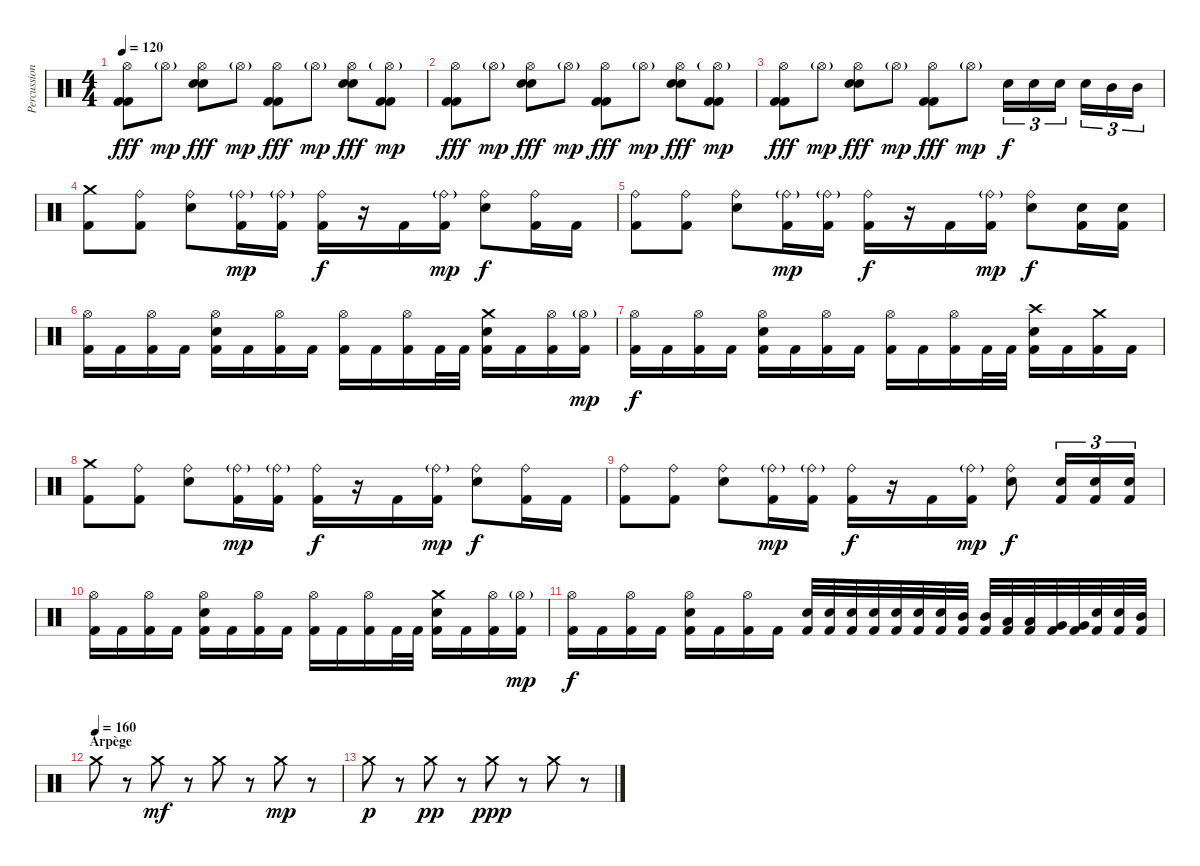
\track ("Percussions" "Percussion") {instrument percussion}
\staff {score}
\articulation defaults
\ts (4 4)
\tempo 120
\clef neutral
\ks c
("Kick (hit) 2" "Kick (hit) 2" "Hi-Hat (open)").8{dy fff} "Hi-Hat (open)"{g}.8{dy mp} ("Electric Snare (hit)" "Electric Snare (hit)" "Hi-Hat (open)").8{dy fff} "Hi-Hat (open)"{g}.8{dy mp} ("Kick (hit) 2" "Kick (hit) 2" "Hi-Hat (open)").8{dy fff} "Hi-Hat (open)"{g}.8{dy mp} ("Electric Snare (hit)" "Electric Snare (hit)" "Hi-Hat (open)").8{dy fff} ("Kick (hit) 2" "Kick (hit) 2" "Hi-Hat (open)"{g}).8{dy mp} |
("Kick (hit) 2" "Kick (hit) 2" "Hi-Hat (open)").8{dy fff} "Hi-Hat (open)"{g}.8{dy mp} ("Electric Snare (hit)" "Electric Snare (hit)" "Hi-Hat (open)").8{dy fff} "Hi-Hat (open)"{g}.8{dy mp} ("Kick (hit) 2" "Kick (hit) 2" "Hi-Hat (open)").8{dy fff} "Hi-Hat (open)"{g}.8{dy mp} ("Electric Snare (hit)" "Electric Snare (hit)" "Hi-Hat (open)").8{dy fff} ("Kick (hit) 2" "Kick (hit) 2" "Hi-Hat (open)"{g}).8{dy mp} |
("Kick (hit) 2" "Kick (hit) 2" "Hi-Hat (open)").8{dy fff} "Hi-Hat (open)"{g}.8{dy mp} ("Electric Snare (hit)" "Electric Snare (hit)" "Hi-Hat (open)").8{dy fff} "Hi-Hat (open)"{g}.8{dy mp} ("Kick (hit) 2" "Kick (hit) 2" "Hi-Hat (open)").8{dy fff} "Hi-Hat (open)"{g}.8{dy mp} "Electric Snare (hit)".16{tu (3 2) dy f} "Electric Snare (hit)".16{tu (3 2)} "Snare (hit) 2".16{tu (3 2)} "Snare (hit) 2".16{tu (3 2)} "Mid Tom (hit)".16{tu (3 2)} "Mid Tom (hit)".16{tu (3 2)} |
("Kick (hit) 2" "Crash medium (hit)").8 ("Kick (hit) 2" "Ride (bell)").8 ("Electric Snare (hit)" "Ride (bell)").8 ("Kick (hit) 2" "Ride (bell)"{g}).16{dy mp} ("Kick (hit) 2" "Ride (bell)"{g}).16 ("Kick (hit) 2" "Ride (bell)").16{dy f} r.16 "Kick (hit) 2".16 ("Kick (hit) 2" "Ride (bell)"{g}).16{dy mp} ("Electric Snare (hit)" "Ride (bell)").8{dy f} ("Kick (hit) 2" "Ride (bell)").16 "Kick (hit) 2".16 |
("Kick (hit) 2" "Ride (bell)").8 ("Kick (hit) 2" "Ride (bell)").8 ("Electric Snare (hit)" "Ride (bell)").8 ("Kick (hit) 2" "Ride (bell)"{g}).16{dy mp} ("Kick (hit) 2" "Ride (bell)"{g}).16 ("Kick (hit) 2" "Ride (bell)").16{dy f} r.16 "Kick (hit) 2".16 ("Kick (hit) 2" "Ride (bell)"{g}).16{dy mp} ("Electric Snare (hit)" "Ride (bell)").8{dy f} ("Kick (hit) 2" "Electric Snare (hit)").16 ("Kick (hit) 2" "Electric Snare (hit)").16 |
("Kick (hit) 2" "Hi-Hat (open)").16 "Kick (hit) 2".16 ("Kick (hit) 2" "Hi-Hat (open)").16 "Kick (hit) 2".16 ("Kick (hit) 2" "Electric Snare (hit)" "Hi-Hat (open)").16 "Kick (hit) 2".16 ("Kick (hit) 2" "Hi-Hat (open)").16 "Kick (hit) 2".16 ("Kick (hit) 2" "Hi-Hat (open)").16 "Kick (hit) 2".16 ("Kick (hit) 2" "Hi-Hat (open)").16 "Kick (hit) 2".32 "Kick (hit) 2".32 ("Kick (hit) 2" "Electric Snare (hit)" "Crash medium (hit)").16 "Kick (hit) 2".16 ("Kick (hit) 2" "Hi-Hat (open)").16 ("Kick (hit) 2" "Hi-Hat (open)"{g}).16{dy mp} |
("Kick (hit) 2" "Hi-Hat (open)").16{dy f} "Kick (hit) 2".16 ("Kick (hit) 2" "Hi-Hat (open)").16 "Kick (hit) 2".16 ("Kick (hit) 2" "Electric Snare (hit)" "Hi-Hat (open)").16 "Kick (hit) 2".16 ("Kick (hit) 2" "Hi-Hat (open)").16 "Kick (hit) 2".16 ("Kick (hit) 2" "Hi-Hat (open)").16 "Kick (hit) 2".16 ("Kick (hit) 2" "Hi-Hat (open)").16 "Kick (hit) 2".32 "Kick (hit) 2".32 ("Kick (hit) 2" "Electric Snare (hit)" "Crash high (hit)").16 "Kick (hit) 2".16 ("Kick (hit) 2" "Crash medium (hit)").16 "Kick (hit) 2".16 |
("Kick (hit) 2" "Crash medium (hit)").8 ("Kick (hit) 2" "Ride (bell)").8 ("Electric Snare (hit)" "Ride (bell)").8 ("Kick (hit) 2" "Ride (bell)"{g}).16{dy mp} ("Kick (hit) 2" "Ride (bell)"{g}).16 ("Kick (hit) 2" "Ride (bell)").16{dy f} r.16 "Kick (hit) 2".16 ("Kick (hit) 2" "Ride (bell)"{g}).16{dy mp} ("Electric Snare (hit)" "Ride (bell)").8{dy f} ("Kick (hit) 2" "Ride (bell)").16 "Kick (hit) 2".16 |
("Kick (hit) 2" "Ride (bell)").8 ("Kick (hit) 2" "Ride (bell)").8 ("Electric Snare (hit)" "Ride (bell)").8 ("Kick (hit) 2" "Ride (bell)"{g}).16{dy mp} ("Kick (hit) 2" "Ride (bell)"{g}).16 ("Kick (hit) 2" "Ride (bell)").16{dy f} r.16 "Kick (hit) 2".16 ("Kick (hit) 2" "Ride (bell)"{g}).16{dy mp} ("Electric Snare (hit)" "Ride (bell)").8{dy f} ("Kick (hit) 2" "Electric Snare (hit)").16{tu (3 2)} ("Kick (hit) 2" "Electric Snare (hit)").16{tu (3 2)} ("Kick (hit) 2" "Electric Snare (hit)").16{tu (3 2)} |
("Kick (hit) 2" "Hi-Hat (open)").16 "Kick (hit) 2".16 ("Kick (hit) 2" "Hi-Hat (open)").16 "Kick (hit) 2".16 ("Kick (hit) 2" "Electric Snare (hit)" "Hi-Hat (open)").16 "Kick (hit) 2".16 ("Kick (hit) 2" "Hi-Hat (open)").16 "Kick (hit) 2".16 ("Kick (hit) 2" "Hi-Hat (open)").16 "Kick (hit) 2".16 ("Kick (hit) 2" "Hi-Hat (open)").16 "Kick (hit) 2".32 "Kick (hit) 2".32 ("Kick (hit) 2" "Electric Snare (hit)" "Crash medium (hit)").16 "Kick (hit) 2".16 ("Kick (hit) 2" "Hi-Hat (open)").16 ("Kick (hit) 2" "Hi-Hat (open)"{g}).16{dy mp} |
("Kick (hit) 2" "Hi-Hat (open)").16{dy f} "Kick (hit) 2".16 ("Kick (hit) 2" "Hi-Hat (open)").16 "Kick (hit) 2".16 ("Kick (hit) 2" "Electric Snare (hit)" "Hi-Hat (open)").16 "Kick (hit) 2".16 ("Kick (hit) 2" "Hi-Hat (open)").16 "Kick (hit) 2".16 ("Kick (hit) 2" "Electric Snare (hit)").32 ("Kick (hit) 2" "Electric Snare (hit)").32 ("Kick (hit) 2" "Electric Snare (hit)").32 ("Kick (hit) 2" "Snare (hit) 2").32 ("Kick (hit) 2" "Snare (hit) 2").32 ("Kick (hit) 2" "Snare (hit) 2").32 ("Kick (hit) 2" "Snare (hit) 2").32 ("Kick (hit) 2" "Mid Tom (hit)").32 ("Kick (hit) 2" "Mid Tom (hit)").32 ("Kick (hit) 2" "Low Tom (hit)").32 ("Kick (hit) 2" "Low Tom (hit)").32 ("Kick (hit) 2" "Very Low Tom (hit)").32 ("Kick (hit) 2" "Very Low Tom (hit)").32 ("Kick (hit) 2" "Snare (hit) 2").32 ("Kick (hit) 2" "Snare (hit) 2").32 ("Kick (hit) 2" "Mid Tom (hit)").32 |
\section ("" "Arpège")
\tempo (160)
"Crash medium (hit)".8 r.8 "Crash medium (hit)".8{dy mf} r.8 "Crash medium (hit)".8 r.8 "Crash medium (hit)".8{dy mp} r.8 |
"Crash medium (hit)".8{dy p} r.8 "Crash medium (hit)".8{dy pp} r.8 "Crash medium (hit)".8{dy ppp} r.8 "Crash medium (hit)".8 r.8
